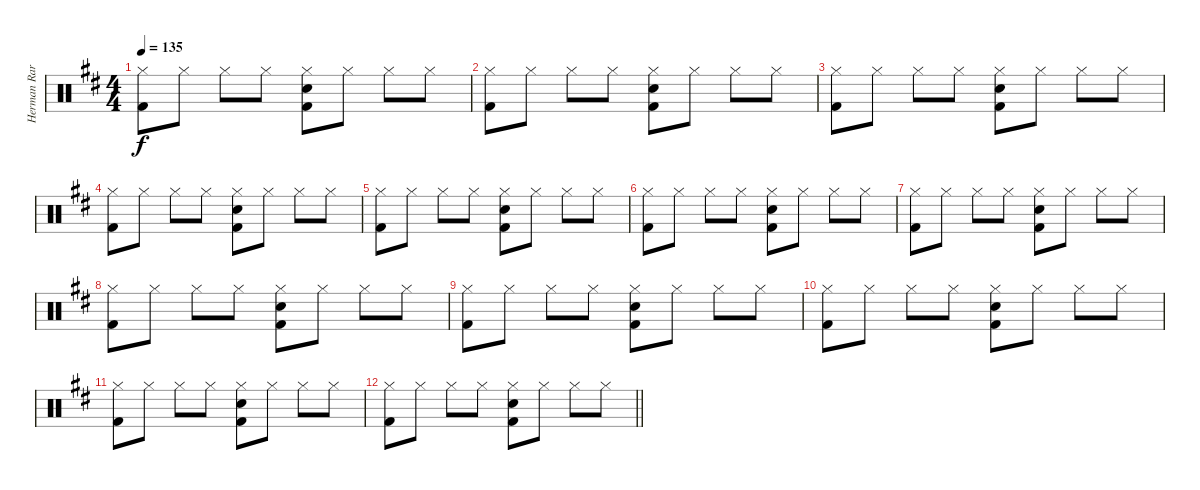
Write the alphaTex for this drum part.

\track ("Herman Rarebell" "Herman Rar") {instrument percussion}
\staff {score}
\articulation defaults
\ts (4 4)
\tempo 135
\clef neutral
\ks d
("Hi-Hat (closed)" "Kick (hit) 2").8{dy f} "Hi-Hat (closed)".8 "Hi-Hat (closed)".8 "Hi-Hat (closed)".8 ("Hi-Hat (closed)" "Snare (hit) 2" "Kick (hit) 2").8 "Hi-Hat (closed)".8 "Hi-Hat (closed)".8 "Hi-Hat (closed)".8 |
("Hi-Hat (closed)" "Kick (hit) 2").8 "Hi-Hat (closed)".8 "Hi-Hat (closed)".8 "Hi-Hat (closed)".8 ("Hi-Hat (closed)" "Snare (hit) 2" "Kick (hit) 2").8 "Hi-Hat (closed)".8 "Hi-Hat (closed)".8 "Hi-Hat (closed)".8 |
("Hi-Hat (closed)" "Kick (hit) 2").8 "Hi-Hat (closed)".8 "Hi-Hat (closed)".8 "Hi-Hat (closed)".8 ("Hi-Hat (closed)" "Snare (hit) 2" "Kick (hit) 2").8 "Hi-Hat (closed)".8 "Hi-Hat (closed)".8 "Hi-Hat (closed)".8 |
("Hi-Hat (closed)" "Kick (hit) 2").8 "Hi-Hat (closed)".8 "Hi-Hat (closed)".8 "Hi-Hat (closed)".8 ("Hi-Hat (closed)" "Snare (hit) 2" "Kick (hit) 2").8 "Hi-Hat (closed)".8 "Hi-Hat (closed)".8 "Hi-Hat (closed)".8 |
("Hi-Hat (closed)" "Kick (hit) 2").8 "Hi-Hat (closed)".8 "Hi-Hat (closed)".8 "Hi-Hat (closed)".8 ("Hi-Hat (closed)" "Snare (hit) 2" "Kick (hit) 2").8 "Hi-Hat (closed)".8 "Hi-Hat (closed)".8 "Hi-Hat (closed)".8 |
("Hi-Hat (closed)" "Kick (hit) 2").8 "Hi-Hat (closed)".8 "Hi-Hat (closed)".8 "Hi-Hat (closed)".8 ("Hi-Hat (closed)" "Snare (hit) 2" "Kick (hit) 2").8 "Hi-Hat (closed)".8 "Hi-Hat (closed)".8 "Hi-Hat (closed)".8 |
("Hi-Hat (closed)" "Kick (hit) 2").8 "Hi-Hat (closed)".8 "Hi-Hat (closed)".8 "Hi-Hat (closed)".8 ("Hi-Hat (closed)" "Snare (hit) 2" "Kick (hit) 2").8 "Hi-Hat (closed)".8 "Hi-Hat (closed)".8 "Hi-Hat (closed)".8 |
("Hi-Hat (closed)" "Kick (hit) 2").8 "Hi-Hat (closed)".8 "Hi-Hat (closed)".8 "Hi-Hat (closed)".8 ("Hi-Hat (closed)" "Snare (hit) 2" "Kick (hit) 2").8 "Hi-Hat (closed)".8 "Hi-Hat (closed)".8 "Hi-Hat (closed)".8 |
("Hi-Hat (closed)" "Kick (hit) 2").8 "Hi-Hat (closed)".8 "Hi-Hat (closed)".8 "Hi-Hat (closed)".8 ("Hi-Hat (closed)" "Snare (hit) 2" "Kick (hit) 2").8 "Hi-Hat (closed)".8 "Hi-Hat (closed)".8 "Hi-Hat (closed)".8 |
("Hi-Hat (closed)" "Kick (hit) 2").8 "Hi-Hat (closed)".8 "Hi-Hat (closed)".8 "Hi-Hat (closed)".8 ("Hi-Hat (closed)" "Snare (hit) 2" "Kick (hit) 2").8 "Hi-Hat (closed)".8 "Hi-Hat (closed)".8 "Hi-Hat (closed)".8 |
("Hi-Hat (closed)" "Kick (hit) 2").8 "Hi-Hat (closed)".8 "Hi-Hat (closed)".8 "Hi-Hat (closed)".8 ("Hi-Hat (closed)" "Snare (hit) 2" "Kick (hit) 2").8 "Hi-Hat (closed)".8 "Hi-Hat (closed)".8 "Hi-Hat (closed)".8 |
\barLineRight lightlight
("Hi-Hat (closed)" "Kick (hit) 2").8 "Hi-Hat (closed)".8 "Hi-Hat (closed)".8 "Hi-Hat (closed)".8 ("Hi-Hat (closed)" "Snare (hit) 2" "Kick (hit) 2").8 "Hi-Hat (closed)".8 "Hi-Hat (closed)".8 "Hi-Hat (closed)".8
